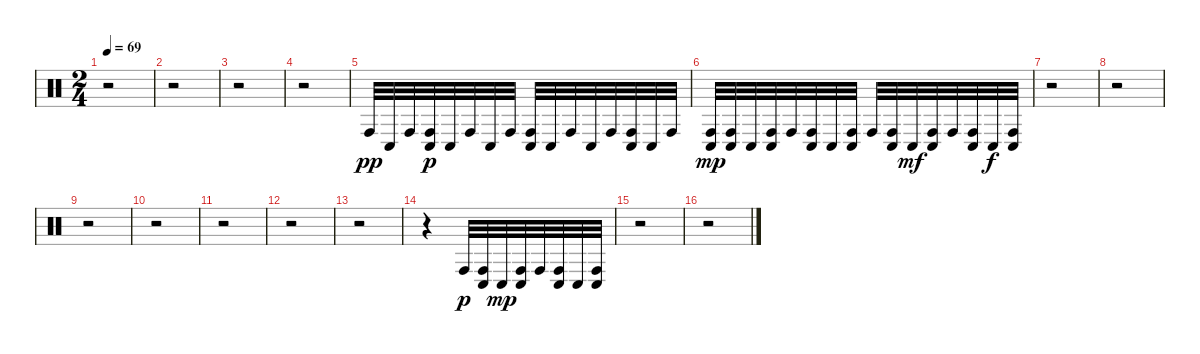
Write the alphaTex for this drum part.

\track "" {instrument percussion}
\staff {score}
\articulation defaults
\ts (2 4)
\tempo 69
\clef neutral
\ks c
r.2{dy mp} |
r.2 |
r.2 |
r.2 |
"Conga high (hit)".32{dy pp} "Conga low (hit)".32 "Conga high (hit)".32 ("Conga low (hit)" "Conga high (hit)").32{dy p} "Conga low (hit)".32 "Conga high (hit)".32 "Conga low (hit)".32 "Conga high (hit)".32 ("Conga low (hit)" "Conga high (hit)").32 "Conga low (hit)".32 "Conga high (hit)".32 "Conga low (hit)".32 "Conga high (hit)".32 ("Conga low (hit)" "Conga high (hit)").32 "Conga low (hit)".32 "Conga high (hit)".32 |
("Conga low (hit)" "Conga high (hit)").32{dy mp} ("Conga low (hit)" "Conga high (hit)").32 "Conga low (hit)".32 ("Conga high (hit)" "Conga low (hit)").32 "Conga high (hit)".32 ("Conga low (hit)" "Conga high (hit)").32 "Conga low (hit)".32 ("Conga high (hit)" "Conga low (hit)").32 "Conga high (hit)".32 ("Conga low (hit)" "Conga high (hit)").32 "Conga low (hit)".32{dy mf} ("Conga high (hit)" "Conga low (hit)").32 "Conga high (hit)".32 ("Conga low (hit)" "Conga high (hit)").32 "Conga low (hit)".32{dy f} ("Conga high (hit)" "Conga low (hit)").32 |
r.2 |
r.2 |
r.2 |
r.2 |
r.2 |
r.2 |
r.2 |
r.4 "Conga high (hit)".32{dy p} ("Conga low (hit)" "Conga high (hit)").32 "Conga low (hit)".32{dy mp} ("Conga high (hit)" "Conga low (hit)").32 "Conga high (hit)".32 ("Conga low (hit)" "Conga high (hit)").32 "Conga low (hit)".32 ("Conga high (hit)" "Conga low (hit)").32 |
r.2 |
r.2
